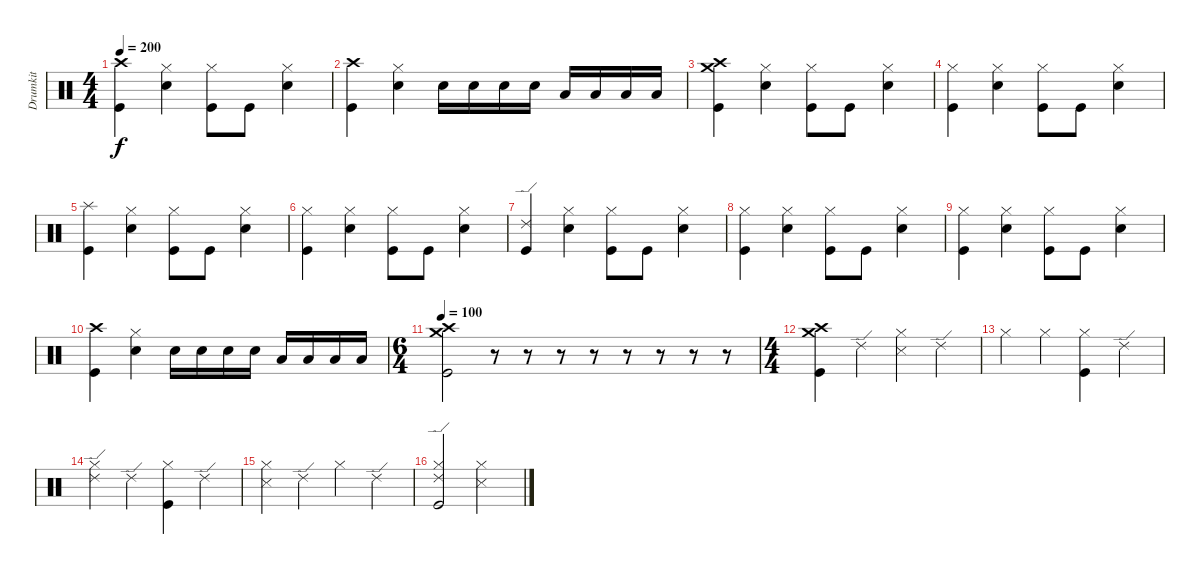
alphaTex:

\track ("Drumkit" "Drumkit") {instrument percussion}
\staff {score}
\articulation defaults
\ts (4 4)
\tempo 200
\clef neutral
\ks c
("Crash high (hit)" "Kick (hit)").4{dy f} ("Hi-Hat (closed)" "Snare (hit) 2").4 ("Hi-Hat (closed)" "Kick (hit)").8 "Kick (hit)".8 ("Hi-Hat (closed)" "Snare (hit) 2").4 |
("Crash high (hit)" "Kick (hit)").4 ("Hi-Hat (closed)" "Snare (hit) 2").4 "Snare (hit) 2".16 "Snare (hit) 2".16 "Snare (hit) 2".16 "Snare (hit) 2".16 "Low Floor Tom (hit)".16 "Low Floor Tom (hit)".16 "Low Tom (hit)".16 "Low Tom (hit)".16 |
("Crash high (hit)" "Crash medium (hit)" "Kick (hit)").4 ("Hi-Hat (closed)" "Snare (hit) 2").4 ("Hi-Hat (closed)" "Kick (hit)").8 "Kick (hit)".8 ("Hi-Hat (closed)" "Snare (hit) 2").4 |
("Hi-Hat (closed)" "Kick (hit)").4 ("Hi-Hat (closed)" "Snare (hit) 2").4 ("Hi-Hat (closed)" "Kick (hit)").8 "Kick (hit)".8 ("Hi-Hat (closed)" "Snare (hit) 2").4 |
("Splash (hit)" "Kick (hit)").4 ("Hi-Hat (closed)" "Snare (hit) 2").4 ("Hi-Hat (closed)" "Kick (hit)").8 "Kick (hit)".8 ("Hi-Hat (closed)" "Snare (hit) 2").4 |
("Hi-Hat (closed)" "Kick (hit)").4 ("Hi-Hat (closed)" "Snare (hit) 2").4 ("Hi-Hat (closed)" "Kick (hit)").8 "Kick (hit)".8 ("Hi-Hat (closed)" "Snare (hit) 2").4 |
("Ride (edge) 2" "Kick (hit)").4 ("Hi-Hat (closed)" "Snare (hit) 2").4 ("Hi-Hat (closed)" "Kick (hit)").8 "Kick (hit)".8 ("Hi-Hat (closed)" "Snare (hit) 2").4 |
("Hi-Hat (closed)" "Kick (hit)").4 ("Hi-Hat (closed)" "Snare (hit) 2").4 ("Hi-Hat (closed)" "Kick (hit)").8 "Kick (hit)".8 ("Hi-Hat (closed)" "Snare (hit) 2").4 |
("Hi-Hat (closed)" "Kick (hit)").4 ("Hi-Hat (closed)" "Snare (hit) 2").4 ("Hi-Hat (closed)" "Kick (hit)").8 "Kick (hit)".8 ("Hi-Hat (closed)" "Snare (hit) 2").4 |
("Crash high (hit)" "Kick (hit)").4 ("Hi-Hat (closed)" "Snare (hit) 2").4 "Snare (hit) 2".16 "Snare (hit) 2".16 "Snare (hit) 2".16 "Snare (hit) 2".16 "Low Floor Tom (hit)".16 "Low Floor Tom (hit)".16 "Low Tom (hit)".16 "Low Tom (hit)".16 |
\ts (6 4)
\tempo 100
("Crash medium (hit)" "Crash high (hit)" "Kick (hit)").2 r.8 r.8 r.8 r.8 r.8 r.8 r.8 r.8 |
\ts (4 4)
("Crash high (hit)" "Crash medium (hit)" "Kick (hit)").4 "Ride (edge) 2".4 ("Hi-Hat (closed)" "Snare (side stick) 3").4 "Ride (edge) 2".4 |
"Hi-Hat (closed)".4 "Hi-Hat (closed)".4 ("Hi-Hat (closed)" "Kick (hit)").4 "Ride (edge) 2".4 |
("Ride (edge) 2" "Hi-Hat (closed)").4 "Ride (edge) 2".4 ("Hi-Hat (closed)" "Kick (hit)").4 "Ride (edge) 2".4 |
("Hi-Hat (closed)" "Snare (side stick) 3").4 "Ride (edge) 2".4 "Hi-Hat (closed)".4 "Ride (edge) 2".4 |
("Ride (edge) 2" "Hi-Hat (closed)" "Kick (hit)").2 ("Hi-Hat (closed)" "Snare (side stick) 3").2
